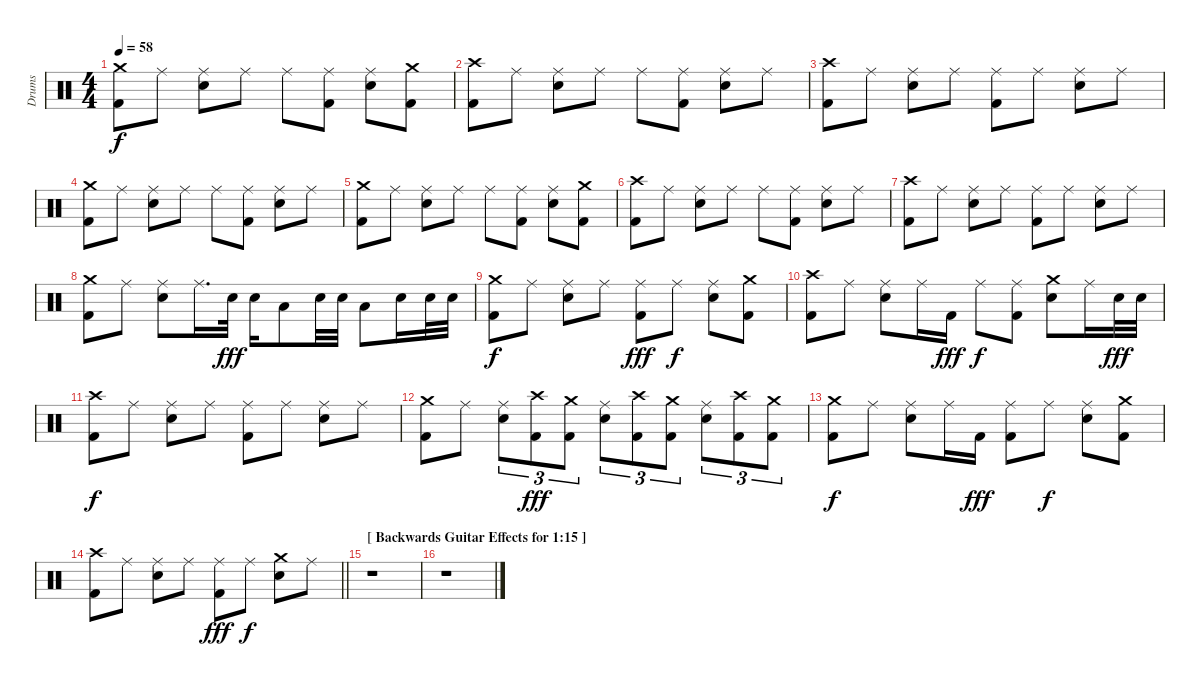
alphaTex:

\track ("Drums" "Drums") {instrument percussion}
\staff {score}
\articulation defaults
\ts (4 4)
\tempo 58
\clef neutral
\ks c
("Crash medium (hit)" "Kick (hit) 2").8{dy f} "Ride (middle)".8 ("Ride (middle)" "Electric Snare (hit)").8 "Ride (middle)".8 "Ride (middle)".8 ("Ride (middle)" "Kick (hit) 2").8 ("Ride (middle)" "Electric Snare (hit)").8 ("Crash medium (hit)" "Kick (hit) 2").8 |
("Crash high (hit)" "Kick (hit) 2").8 "Ride (middle)".8 ("Ride (middle)" "Electric Snare (hit)").8 "Ride (middle)".8 "Ride (middle)".8 ("Ride (middle)" "Kick (hit) 2").8 ("Ride (middle)" "Electric Snare (hit)").8 "Ride (middle)".8 |
("Crash high (hit)" "Kick (hit) 2").8 "Ride (middle)".8 ("Ride (middle)" "Electric Snare (hit)").8 "Ride (middle)".8 ("Ride (middle)" "Kick (hit) 2").8 "Ride (middle)".8 ("Ride (middle)" "Electric Snare (hit)").8 "Ride (middle)".8 |
("Crash medium (hit)" "Kick (hit) 2").8 "Ride (middle)".8 ("Ride (middle)" "Electric Snare (hit)").8 "Ride (middle)".8 "Ride (middle)".8 ("Ride (middle)" "Kick (hit) 2").8 ("Ride (middle)" "Electric Snare (hit)").8 "Ride (middle)".8 |
("Crash medium (hit)" "Kick (hit) 2").8 "Ride (middle)".8 ("Ride (middle)" "Electric Snare (hit)").8 "Ride (middle)".8 "Ride (middle)".8 ("Ride (middle)" "Kick (hit) 2").8 ("Ride (middle)" "Electric Snare (hit)").8 ("Crash medium (hit)" "Kick (hit) 2").8 |
("Crash high (hit)" "Kick (hit) 2").8 "Ride (middle)".8 ("Ride (middle)" "Electric Snare (hit)").8 "Ride (middle)".8 "Ride (middle)".8 ("Ride (middle)" "Kick (hit) 2").8 ("Ride (middle)" "Electric Snare (hit)").8 "Ride (middle)".8 |
("Crash high (hit)" "Kick (hit) 2").8 "Ride (middle)".8 ("Ride (middle)" "Electric Snare (hit)").8 "Ride (middle)".8 ("Ride (middle)" "Kick (hit) 2").8 "Ride (middle)".8 ("Ride (middle)" "Electric Snare (hit)").8 "Ride (middle)".8 |
("Crash medium (hit)" "Kick (hit) 2").8 "Ride (middle)".8 ("Ride (middle)" "Electric Snare (hit)").8 "Ride (middle)".16{d} "Electric Snare (hit)".32{dy fff} "Electric Snare (hit)".16 "Low Tom (hit)".8 "Electric Snare (hit)".32 "Electric Snare (hit)".32 "Low Tom (hit)".8 "Electric Snare (hit)".16 "Electric Snare (hit)".32 "Electric Snare (hit)".32 |
("Crash medium (hit)" "Kick (hit) 2").8{dy f} "Ride (middle)".8 ("Ride (middle)" "Electric Snare (hit)").8 "Ride (middle)".8 ("Ride (middle)" "Kick (hit) 2").8{dy fff} "Ride (middle)".8{dy f} ("Ride (middle)" "Electric Snare (hit)").8 ("Crash medium (hit)" "Kick (hit) 2").8 |
("Crash high (hit)" "Kick (hit) 2").8 "Ride (middle)".8 ("Ride (middle)" "Electric Snare (hit)").8 "Ride (middle)".16 "Kick (hit) 2".16{dy fff} "Ride (middle)".8{dy f volume 0} ("Ride (middle)" "Kick (hit) 2").8 ("Crash medium (hit)" "Electric Snare (hit)").8 "Ride (middle)".16 "Electric Snare (hit)".32{dy fff} "Electric Snare (hit)".32 |
("Crash high (hit)" "Kick (hit) 2").8{dy f} "Ride (middle)".8 ("Ride (middle)" "Electric Snare (hit)").8 "Ride (middle)".8 ("Ride (middle)" "Kick (hit) 2").8 "Ride (middle)".8 ("Ride (middle)" "Electric Snare (hit)").8 "Ride (middle)".8 |
("Crash medium (hit)" "Kick (hit) 2").8 "Ride (middle)".8 ("Ride (middle)" "Electric Snare (hit)").8{tu (3 2)} ("Crash high (hit)" "Kick (hit) 2").8{tu (3 2) dy fff} ("Crash medium (hit)" "Kick (hit) 2").8{tu (3 2)} ("Ride (middle)" "Electric Snare (hit)").8{tu (3 2)} ("Crash high (hit)" "Kick (hit) 2").8{tu (3 2)} ("Crash medium (hit)" "Kick (hit) 2").8{tu (3 2)} ("Ride (middle)" "Electric Snare (hit)").8{tu (3 2)} ("Crash high (hit)" "Kick (hit) 2").8{tu (3 2)} ("Crash medium (hit)" "Kick (hit) 2").8{tu (3 2)} |
("Crash medium (hit)" "Kick (hit) 2").8{dy f} "Ride (middle)".8 ("Ride (middle)" "Electric Snare (hit)").8 "Ride (middle)".16 "Kick (hit) 2".16{dy fff} ("Ride (middle)" "Kick (hit) 2").8 "Ride (middle)".8{dy f} ("Ride (middle)" "Electric Snare (hit)").8 ("Crash medium (hit)" "Kick (hit) 2").8 |
\barLineRight lightlight
("Crash high (hit)" "Kick (hit) 2").8 "Ride (middle)".8 ("Ride (middle)" "Electric Snare (hit)").8 "Ride (middle)".8 ("Ride (middle)" "Kick (hit) 2").8{dy fff} "Ride (middle)".8{dy f} ("Crash medium (hit)" "Electric Snare (hit)").8 "Ride (middle)".8 |
\section ("" "[ Backwards Guitar Effects for 1:15 ]")
r.1 |
r.1
